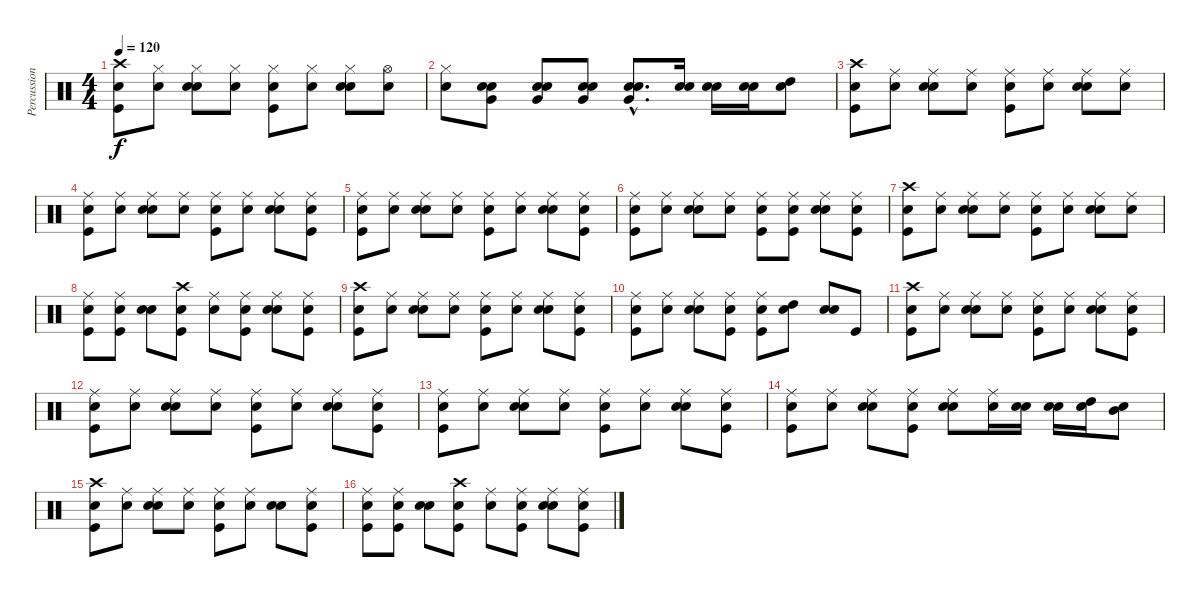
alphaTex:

\track ("Percussion" "Percussion") {instrument percussion}
\staff {score}
\articulation defaults
\ts (4 4)
\tempo 120
\clef neutral
\ks c
("Snare (hit)" "Kick (hit)" "Crash high (hit)").8{dy f} ("Snare (hit)" "Hi-Hat (closed)").8 ("Snare (hit)" "Electric Snare (hit)" "Hi-Hat (closed)").8 ("Snare (hit)" "Hi-Hat (closed)").8 ("Snare (hit)" "Kick (hit)" "Hi-Hat (closed)").8 ("Snare (hit)" "Hi-Hat (closed)").8 ("Snare (hit)" "Electric Snare (hit)" "Hi-Hat (closed)").8 ("Snare (hit)" "Hi-Hat (open)").8 |
("Snare (hit)" "Hi-Hat (closed)").8 ("Snare (hit)" "Electric Snare (hit)" "Very Low Tom (hit)").8 ("Snare (hit)" "Electric Snare (hit)" "Very Low Tom (hit)").8 ("Snare (hit)" "Electric Snare (hit)" "Very Low Tom (hit)").8 ("Snare (hit)"{hac} "Electric Snare (hit)"{hac} "Very Low Tom (hit)"{hac}).8{d} ("Snare (hit)" "Electric Snare (hit)").16 ("Snare (hit)" "Electric Snare (hit)").16 ("Snare (hit)" "Electric Snare (hit)").16 ("Snare (hit)" "High Tom (hit)").8 |
("Snare (hit)" "Kick (hit)" "Crash high (hit)").8 ("Snare (hit)" "Ride (middle)").8 ("Snare (hit)" "Electric Snare (hit)" "Ride (middle)").8 ("Snare (hit)" "Ride (middle)").8 ("Snare (hit)" "Kick (hit)" "Ride (middle)").8 ("Snare (hit)" "Ride (middle)").8 ("Snare (hit)" "Electric Snare (hit)" "Ride (middle)").8 ("Snare (hit)" "Ride (middle)").8 |
("Snare (hit)" "Kick (hit)" "Ride (middle)").8 ("Snare (hit)" "Ride (middle)").8 ("Snare (hit)" "Electric Snare (hit)" "Ride (middle)").8 ("Snare (hit)" "Ride (middle)").8 ("Snare (hit)" "Kick (hit)" "Ride (middle)").8 ("Snare (hit)" "Ride (middle)").8 ("Snare (hit)" "Electric Snare (hit)" "Ride (middle)").8 ("Snare (hit)" "Kick (hit)" "Ride (middle)").8 |
("Snare (hit)" "Kick (hit)" "Ride (middle)").8 ("Snare (hit)" "Ride (middle)").8 ("Snare (hit)" "Electric Snare (hit)" "Ride (middle)").8 ("Snare (hit)" "Ride (middle)").8 ("Snare (hit)" "Kick (hit)" "Ride (middle)").8 ("Snare (hit)" "Ride (middle)").8 ("Snare (hit)" "Electric Snare (hit)" "Ride (middle)").8 ("Snare (hit)" "Kick (hit)" "Ride (middle)").8 |
("Snare (hit)" "Kick (hit)" "Ride (middle)").8 ("Snare (hit)" "Ride (middle)").8 ("Snare (hit)" "Electric Snare (hit)" "Ride (middle)").8 ("Snare (hit)" "Ride (middle)").8 ("Snare (hit)" "Kick (hit)" "Ride (middle)").8 ("Snare (hit)" "Kick (hit)" "Ride (middle)").8 ("Snare (hit)" "Electric Snare (hit)" "Ride (middle)").8 ("Snare (hit)" "Kick (hit)" "Ride (middle)").8 |
("Snare (hit)" "Kick (hit)" "Crash high (hit)").8 ("Snare (hit)" "Ride (middle)").8 ("Snare (hit)" "Electric Snare (hit)" "Ride (middle)").8 ("Snare (hit)" "Ride (middle)").8 ("Snare (hit)" "Kick (hit)" "Ride (middle)").8 ("Snare (hit)" "Ride (middle)").8 ("Snare (hit)" "Electric Snare (hit)" "Ride (middle)").8 ("Snare (hit)" "Ride (middle)").8 |
("Snare (hit)" "Kick (hit)" "Ride (middle)").8 ("Snare (hit)" "Kick (hit)" "Ride (middle)").8 ("Snare (hit)" "Electric Snare (hit)").8 ("Snare (hit)" "Kick (hit)" "Crash high (hit)").8 ("Snare (hit)" "Ride (middle)").8 ("Snare (hit)" "Kick (hit)" "Ride (middle)").8 ("Snare (hit)" "Electric Snare (hit)" "Ride (middle)").8 ("Snare (hit)" "Kick (hit)" "Ride (middle)").8 |
("Snare (hit)" "Kick (hit)" "Crash high (hit)").8 ("Snare (hit)" "Ride (middle)").8 ("Snare (hit)" "Electric Snare (hit)" "Ride (middle)").8 ("Snare (hit)" "Ride (middle)").8 ("Snare (hit)" "Kick (hit)" "Ride (middle)").8 ("Snare (hit)" "Ride (middle)").8 ("Snare (hit)" "Electric Snare (hit)" "Ride (middle)").8 ("Snare (hit)" "Kick (hit)" "Ride (middle)").8 |
("Snare (hit)" "Kick (hit)" "Ride (middle)").8 ("Snare (hit)" "Ride (middle)").8 ("Snare (hit)" "Electric Snare (hit)" "Ride (middle)").8 ("Snare (hit)" "Kick (hit)" "Ride (middle)").8 ("Snare (hit)" "Kick (hit)" "Ride (middle)").8 ("Snare (hit)" "High Tom (hit)").8 ("Snare (hit)" "Electric Snare (hit)").8 "Kick (hit)".8 |
("Snare (hit)" "Kick (hit)" "Crash high (hit)").8 ("Snare (hit)" "Ride (middle)").8 ("Snare (hit)" "Electric Snare (hit)" "Ride (middle)").8 ("Snare (hit)" "Ride (middle)").8 ("Snare (hit)" "Kick (hit)" "Ride (middle)").8 ("Snare (hit)" "Ride (middle)").8 ("Snare (hit)" "Electric Snare (hit)" "Ride (middle)").8 ("Snare (hit)" "Kick (hit)" "Ride (middle)").8 |
("Snare (hit)" "Kick (hit)" "Ride (middle)").8 ("Snare (hit)" "Ride (middle)").8 ("Snare (hit)" "Electric Snare (hit)" "Ride (middle)").8 ("Snare (hit)" "Ride (middle)").8 ("Snare (hit)" "Kick (hit)" "Ride (middle)").8 ("Snare (hit)" "Ride (middle)").8 ("Snare (hit)" "Electric Snare (hit)" "Ride (middle)").8 ("Snare (hit)" "Kick (hit)" "Ride (middle)").8 |
("Snare (hit)" "Kick (hit)" "Ride (middle)").8 ("Snare (hit)" "Ride (middle)").8 ("Snare (hit)" "Electric Snare (hit)" "Ride (middle)").8 ("Snare (hit)" "Ride (middle)").8 ("Snare (hit)" "Kick (hit)" "Ride (middle)").8 ("Snare (hit)" "Ride (middle)").8 ("Snare (hit)" "Electric Snare (hit)" "Ride (middle)").8 ("Snare (hit)" "Kick (hit)" "Ride (middle)").8 |
("Snare (hit)" "Kick (hit)" "Ride (middle)").8 ("Snare (hit)" "Ride (middle)").8 ("Snare (hit)" "Electric Snare (hit)" "Ride (middle)").8 ("Snare (hit)" "Kick (hit)" "Ride (middle)").8 ("Snare (hit)" "Electric Snare (hit)" "Ride (middle)").8 ("Snare (hit)" "Ride (middle)").16 ("Snare (hit)" "Electric Snare (hit)").16 ("Snare (hit)" "Electric Snare (hit)").16 ("Snare (hit)" "High Tom (hit)").16 ("Snare (hit)" "Mid Tom (hit)").8 |
("Snare (hit)" "Kick (hit)" "Crash high (hit)").8 ("Snare (hit)" "Ride (middle)").8 ("Snare (hit)" "Electric Snare (hit)" "Ride (middle)").8 ("Snare (hit)" "Ride (middle)").8 ("Snare (hit)" "Kick (hit)" "Ride (middle)").8 ("Snare (hit)" "Ride (middle)").8 ("Snare (hit)" "Electric Snare (hit)").8 ("Snare (hit)" "Kick (hit)" "Ride (middle)").8 |
("Snare (hit)" "Kick (hit)" "Ride (middle)").8 ("Snare (hit)" "Kick (hit)" "Ride (middle)").8 ("Snare (hit)" "Electric Snare (hit)").8 ("Snare (hit)" "Kick (hit)" "Crash high (hit)").8 ("Snare (hit)" "Ride (middle)").8 ("Snare (hit)" "Kick (hit)" "Ride (middle)").8 ("Snare (hit)" "Electric Snare (hit)" "Ride (middle)").8 ("Snare (hit)" "Kick (hit)" "Ride (middle)").8
